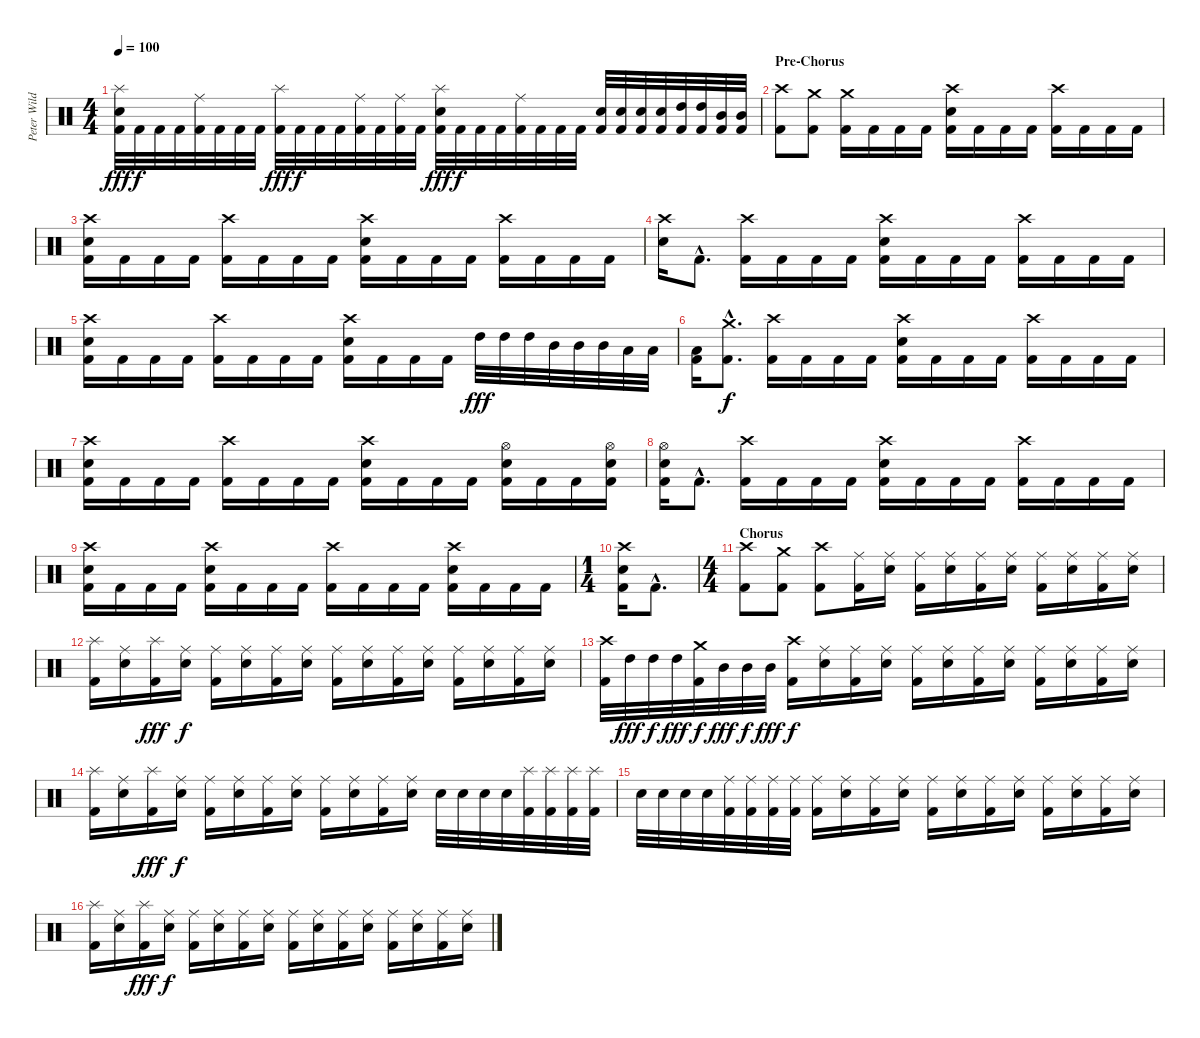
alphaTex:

\track ("Peter Wildoer" "Peter Wild") {instrument percussion}
\staff {score}
\articulation defaults
\ts (4 4)
\tempo 100
\clef neutral
\ks c
("Splash (hit)" "Electric Snare (hit)" "Kick (hit) 2").32{dy fff} "Kick (hit) 2".32{dy f} "Kick (hit) 2".32 "Kick (hit) 2".32 ("Ride (middle)" "Kick (hit) 2").32 "Kick (hit) 2".32 "Kick (hit) 2".32 "Kick (hit) 2".32 ("Splash (hit)" "Kick (hit) 2").32{dy fff} "Kick (hit) 2".32{dy f} "Kick (hit) 2".32 "Kick (hit) 2".32 ("Ride (middle)" "Kick (hit) 2").32 "Kick (hit) 2".32 ("Ride (middle)" "Kick (hit) 2").32 "Kick (hit) 2".32 ("Splash (hit)" "Electric Snare (hit)" "Kick (hit) 2").32{dy fff} "Kick (hit) 2".32{dy f} "Kick (hit) 2".32 "Kick (hit) 2".32 ("Ride (middle)" "Kick (hit) 2").32 "Kick (hit) 2".32 "Kick (hit) 2".32 "Kick (hit) 2".32 ("Electric Snare (hit)" "Kick (hit) 2").32 ("Electric Snare (hit)" "Kick (hit) 2").32 ("Electric Snare (hit)" "Kick (hit) 2").32 ("Electric Snare (hit)" "Kick (hit) 2").32 ("High Tom (hit)" "Kick (hit) 2").32 ("High Tom (hit)" "Kick (hit) 2").32 ("Mid Tom (hit)" "Kick (hit) 2").32 ("Mid Tom (hit)" "Kick (hit) 2").32 |
\section ("" "Pre-Chorus")
("Crash high (hit)" "Kick (hit) 2").8 ("Crash medium (hit)" "Kick (hit) 2").8 ("Crash medium (hit)" "Kick (hit) 2").16 "Kick (hit) 2".16 "Kick (hit) 2".16 "Kick (hit) 2".16 ("Crash high (hit)" "Electric Snare (hit)" "Kick (hit) 2").16 "Kick (hit) 2".16 "Kick (hit) 2".16 "Kick (hit) 2".16 ("Crash high (hit)" "Kick (hit) 2").16 "Kick (hit) 2".16 "Kick (hit) 2".16 "Kick (hit) 2".16 |
("Crash high (hit)" "Electric Snare (hit)" "Kick (hit) 2").16 "Kick (hit) 2".16 "Kick (hit) 2".16 "Kick (hit) 2".16 ("Crash high (hit)" "Kick (hit) 2").16 "Kick (hit) 2".16 "Kick (hit) 2".16 "Kick (hit) 2".16 ("Crash high (hit)" "Electric Snare (hit)" "Kick (hit) 2").16 "Kick (hit) 2".16 "Kick (hit) 2".16 "Kick (hit) 2".16 ("Crash high (hit)" "Kick (hit) 2").16 "Kick (hit) 2".16 "Kick (hit) 2".16 "Kick (hit) 2".16 |
("Crash high (hit)" "Electric Snare (hit)").16 "Kick (hit) 2"{hac}.8{d} ("Crash high (hit)" "Kick (hit) 2").16 "Kick (hit) 2".16 "Kick (hit) 2".16 "Kick (hit) 2".16 ("Crash high (hit)" "Electric Snare (hit)" "Kick (hit) 2").16 "Kick (hit) 2".16 "Kick (hit) 2".16 "Kick (hit) 2".16 ("Crash high (hit)" "Kick (hit) 2").16 "Kick (hit) 2".16 "Kick (hit) 2".16 "Kick (hit) 2".16 |
("Crash high (hit)" "Electric Snare (hit)" "Kick (hit) 2").16 "Kick (hit) 2".16 "Kick (hit) 2".16 "Kick (hit) 2".16 ("Crash high (hit)" "Kick (hit) 2").16 "Kick (hit) 2".16 "Kick (hit) 2".16 "Kick (hit) 2".16 ("Crash high (hit)" "Electric Snare (hit)" "Kick (hit) 2").16 "Kick (hit) 2".16 "Kick (hit) 2".16 "Kick (hit) 2".16 "High Tom (hit)".32{dy fff} "High Tom (hit)".32 "High Tom (hit)".32 "Mid Tom (hit)".32 "Mid Tom (hit)".32 "Mid Tom (hit)".32 "Low Tom (hit)".32 "Low Tom (hit)".32 |
("Low Tom (hit)" "Kick (hit) 2").16 ("Crash medium (hit)"{hac} "Kick (hit) 2"{hac}).8{d dy f} ("Crash high (hit)" "Kick (hit) 2").16 "Kick (hit) 2".16 "Kick (hit) 2".16 "Kick (hit) 2".16 ("Crash high (hit)" "Electric Snare (hit)" "Kick (hit) 2").16 "Kick (hit) 2".16 "Kick (hit) 2".16 "Kick (hit) 2".16 ("Crash high (hit)" "Kick (hit) 2").16 "Kick (hit) 2".16 "Kick (hit) 2".16 "Kick (hit) 2".16 |
("Crash high (hit)" "Electric Snare (hit)" "Kick (hit) 2").16 "Kick (hit) 2".16 "Kick (hit) 2".16 "Kick (hit) 2".16 ("Crash high (hit)" "Kick (hit) 2").16 "Kick (hit) 2".16 "Kick (hit) 2".16 "Kick (hit) 2".16 ("Crash high (hit)" "Electric Snare (hit)" "Kick (hit) 2").16 "Kick (hit) 2".16 "Kick (hit) 2".16 "Kick (hit) 2".16 ("Hi-Hat (open)" "Electric Snare (hit)" "Kick (hit) 2").16 "Kick (hit) 2".16 "Kick (hit) 2".16 ("Hi-Hat (open)" "Electric Snare (hit)" "Kick (hit) 2").16 |
("Hi-Hat (open)" "Electric Snare (hit)" "Kick (hit) 2").16 "Kick (hit) 2"{hac}.8{d} ("Crash high (hit)" "Kick (hit) 2").16 "Kick (hit) 2".16 "Kick (hit) 2".16 "Kick (hit) 2".16 ("Crash high (hit)" "Electric Snare (hit)" "Kick (hit) 2").16 "Kick (hit) 2".16 "Kick (hit) 2".16 "Kick (hit) 2".16 ("Crash high (hit)" "Kick (hit) 2").16 "Kick (hit) 2".16 "Kick (hit) 2".16 "Kick (hit) 2".16 |
("Crash high (hit)" "Electric Snare (hit)" "Kick (hit) 2").16 "Kick (hit) 2".16 "Kick (hit) 2".16 "Kick (hit) 2".16 ("Crash high (hit)" "Electric Snare (hit)" "Kick (hit) 2").16 "Kick (hit) 2".16 "Kick (hit) 2".16 "Kick (hit) 2".16 ("Crash high (hit)" "Kick (hit) 2").16 "Kick (hit) 2".16 "Kick (hit) 2".16 "Kick (hit) 2".16 ("Crash high (hit)" "Electric Snare (hit)" "Kick (hit) 2").16 "Kick (hit) 2".16 "Kick (hit) 2".16 "Kick (hit) 2".16 |
\ts (1 4)
("Crash high (hit)" "Electric Snare (hit)" "Kick (hit) 2").16 "Kick (hit) 2"{hac}.8{d} |
\ts (4 4)
\section ("" "Chorus")
("Crash high (hit)" "Kick (hit) 2").8 ("Crash medium (hit)" "Kick (hit) 2").8 ("Crash high (hit)" "Kick (hit) 2").8 ("Ride (middle)" "Kick (hit) 2").16 ("Ride (middle)" "Electric Snare (hit)").16 ("Ride (middle)" "Kick (hit) 2").16 ("Ride (middle)" "Electric Snare (hit)").16 ("Ride (middle)" "Kick (hit) 2").16 ("Ride (middle)" "Electric Snare (hit)").16 ("Ride (middle)" "Kick (hit) 2").16 ("Ride (middle)" "Electric Snare (hit)").16 ("Ride (middle)" "Kick (hit) 2").16 ("Ride (middle)" "Electric Snare (hit)").16 |
("Splash (hit)" "Kick (hit) 2").16 ("Ride (middle)" "Electric Snare (hit)").16 ("Splash (hit)" "Kick (hit) 2").16{dy fff} ("Ride (middle)" "Electric Snare (hit)").16{dy f} ("Ride (middle)" "Kick (hit) 2").16 ("Ride (middle)" "Electric Snare (hit)").16 ("Ride (middle)" "Kick (hit) 2").16 ("Ride (middle)" "Electric Snare (hit)").16 ("Ride (middle)" "Kick (hit) 2").16 ("Ride (middle)" "Electric Snare (hit)").16 ("Ride (middle)" "Kick (hit) 2").16 ("Ride (middle)" "Electric Snare (hit)").16 ("Ride (middle)" "Kick (hit) 2").16 ("Ride (middle)" "Electric Snare (hit)").16 ("Ride (middle)" "Kick (hit) 2").16 ("Ride (middle)" "Electric Snare (hit)").16 |
("Crash high (hit)" "Kick (hit) 2").32 "High Tom (hit)".32{dy fff} "High Tom (hit)".32{dy f} "High Tom (hit)".32{dy fff} ("Crash medium (hit)" "Kick (hit) 2").32{dy f} "Mid Tom (hit)".32{dy fff} "Mid Tom (hit)".32{dy f} "Mid Tom (hit)".32{dy fff} ("Crash high (hit)" "Kick (hit) 2").16{dy f} ("Ride (middle)" "Electric Snare (hit)").16 ("Ride (middle)" "Kick (hit) 2").16 ("Ride (middle)" "Electric Snare (hit)").16 ("Ride (middle)" "Kick (hit) 2").16 ("Ride (middle)" "Electric Snare (hit)").16 ("Ride (middle)" "Kick (hit) 2").16 ("Ride (middle)" "Electric Snare (hit)").16 ("Ride (middle)" "Kick (hit) 2").16 ("Ride (middle)" "Electric Snare (hit)").16 ("Ride (middle)" "Kick (hit) 2").16 ("Ride (middle)" "Electric Snare (hit)").16 |
("Splash (hit)" "Kick (hit) 2").16 ("Ride (middle)" "Electric Snare (hit)").16 ("Splash (hit)" "Kick (hit) 2").16{dy fff} ("Ride (middle)" "Electric Snare (hit)").16{dy f} ("Ride (middle)" "Kick (hit) 2").16 ("Ride (middle)" "Electric Snare (hit)").16 ("Ride (middle)" "Kick (hit) 2").16 ("Ride (middle)" "Electric Snare (hit)").16 ("Ride (middle)" "Kick (hit) 2").16 ("Ride (middle)" "Electric Snare (hit)").16 ("Ride (middle)" "Kick (hit) 2").16 ("Ride (middle)" "Electric Snare (hit)").16 "Electric Snare (hit)".32 "Electric Snare (hit)".32 "Electric Snare (hit)".32 "Electric Snare (hit)".32 ("Splash (hit)" "Kick (hit) 2").32 ("Splash (hit)" "Kick (hit) 2").32 ("Splash (hit)" "Kick (hit) 2").32 ("Splash (hit)" "Kick (hit) 2").32 |
"Electric Snare (hit)".32 "Electric Snare (hit)".32 "Electric Snare (hit)".32 "Electric Snare (hit)".32 ("Ride (middle)" "Kick (hit) 2").32 ("Ride (middle)" "Kick (hit) 2").32 ("Ride (middle)" "Kick (hit) 2").32 ("Ride (middle)" "Kick (hit) 2").32 ("Ride (middle)" "Kick (hit) 2").16 ("Ride (middle)" "Electric Snare (hit)").16 ("Ride (middle)" "Kick (hit) 2").16 ("Ride (middle)" "Electric Snare (hit)").16 ("Ride (middle)" "Kick (hit) 2").16 ("Ride (middle)" "Electric Snare (hit)").16 ("Ride (middle)" "Kick (hit) 2").16 ("Ride (middle)" "Electric Snare (hit)").16 ("Ride (middle)" "Kick (hit) 2").16 ("Ride (middle)" "Electric Snare (hit)").16 ("Ride (middle)" "Kick (hit) 2").16 ("Ride (middle)" "Electric Snare (hit)").16 |
("Splash (hit)" "Kick (hit) 2").16 ("Ride (middle)" "Electric Snare (hit)").16 ("Splash (hit)" "Kick (hit) 2").16{dy fff} ("Ride (middle)" "Electric Snare (hit)").16{dy f} ("Ride (middle)" "Kick (hit) 2").16 ("Ride (middle)" "Electric Snare (hit)").16 ("Ride (middle)" "Kick (hit) 2").16 ("Ride (middle)" "Electric Snare (hit)").16 ("Ride (middle)" "Kick (hit) 2").16 ("Ride (middle)" "Electric Snare (hit)").16 ("Ride (middle)" "Kick (hit) 2").16 ("Ride (middle)" "Electric Snare (hit)").16 ("Ride (middle)" "Kick (hit) 2").16 ("Ride (middle)" "Electric Snare (hit)").16 ("Ride (middle)" "Kick (hit) 2").16 ("Ride (middle)" "Electric Snare (hit)").16
